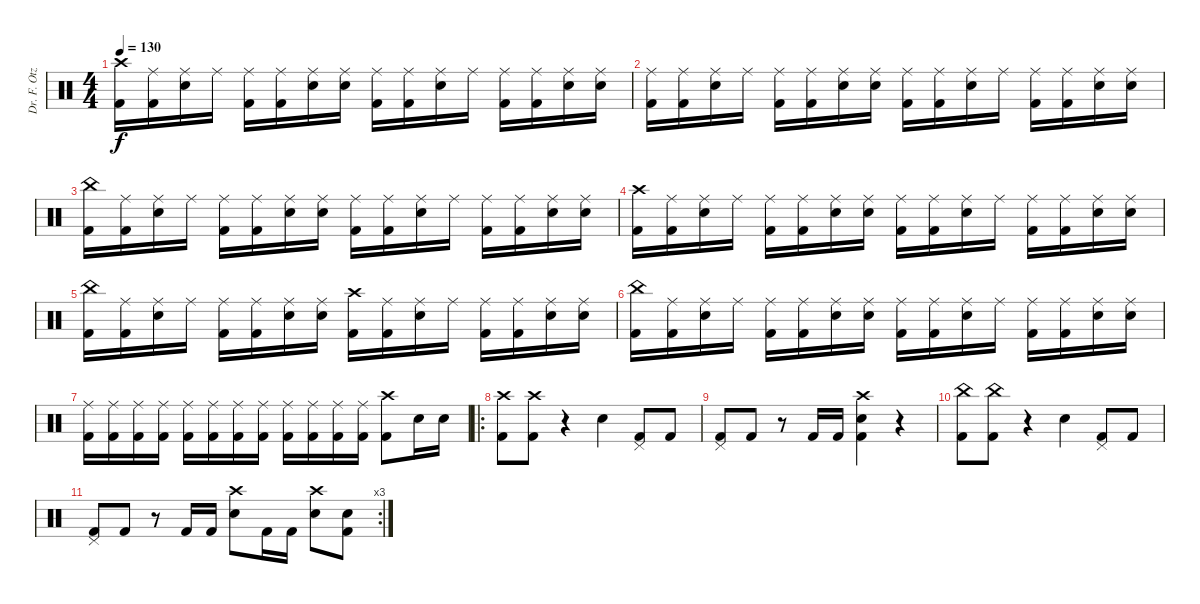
\track ("Dr. F. Otze" "Dr. F. Otz") {instrument percussion}
\staff {score}
\articulation defaults
\ts (4 4)
\tempo 130
\clef neutral
\ks c
("Crash high (hit)" "Kick (hit) 2").16{dy f} ("Ride (middle)" "Kick (hit) 2").16 ("Ride (middle)" "Electric Snare (hit)").16 "Ride (middle)".16 ("Ride (middle)" "Kick (hit) 2").16 ("Ride (middle)" "Kick (hit) 2").16 ("Ride (middle)" "Electric Snare (hit)").16 ("Ride (middle)" "Electric Snare (hit)").16 ("Ride (middle)" "Kick (hit) 2").16 ("Ride (middle)" "Kick (hit) 2").16 ("Ride (middle)" "Electric Snare (hit)").16 "Ride (middle)".16 ("Ride (middle)" "Kick (hit) 2").16 ("Ride (middle)" "Kick (hit) 2").16 ("Ride (middle)" "Electric Snare (hit)").16 ("Ride (middle)" "Electric Snare (hit)").16 |
("Ride (middle)" "Kick (hit) 2").16 ("Ride (middle)" "Kick (hit) 2").16 ("Ride (middle)" "Electric Snare (hit)").16 "Ride (middle)".16 ("Ride (middle)" "Kick (hit) 2").16 ("Ride (middle)" "Kick (hit) 2").16 ("Ride (middle)" "Electric Snare (hit)").16 ("Ride (middle)" "Electric Snare (hit)").16 ("Ride (middle)" "Kick (hit) 2").16 ("Ride (middle)" "Kick (hit) 2").16 ("Ride (middle)" "Electric Snare (hit)").16 "Ride (middle)".16 ("Ride (middle)" "Kick (hit) 2").16 ("Ride (middle)" "Kick (hit) 2").16 ("Ride (middle)" "Electric Snare (hit)").16 ("Ride (middle)" "Electric Snare (hit)").16 |
("China (hit)" "Kick (hit) 2").16 ("Ride (middle)" "Kick (hit) 2").16 ("Ride (middle)" "Electric Snare (hit)").16 "Ride (middle)".16 ("Ride (middle)" "Kick (hit) 2").16 ("Ride (middle)" "Kick (hit) 2").16 ("Ride (middle)" "Electric Snare (hit)").16 ("Ride (middle)" "Electric Snare (hit)").16 ("Ride (middle)" "Kick (hit) 2").16 ("Ride (middle)" "Kick (hit) 2").16 ("Ride (middle)" "Electric Snare (hit)").16 "Ride (middle)".16 ("Ride (middle)" "Kick (hit) 2").16 ("Ride (middle)" "Kick (hit) 2").16 ("Ride (middle)" "Electric Snare (hit)").16 ("Ride (middle)" "Electric Snare (hit)").16 |
("Crash high (hit)" "Kick (hit) 2").16 ("Ride (middle)" "Kick (hit) 2").16 ("Ride (middle)" "Electric Snare (hit)").16 "Ride (middle)".16 ("Ride (middle)" "Kick (hit) 2").16 ("Ride (middle)" "Kick (hit) 2").16 ("Ride (middle)" "Electric Snare (hit)").16 ("Ride (middle)" "Electric Snare (hit)").16 ("Ride (middle)" "Kick (hit) 2").16 ("Ride (middle)" "Kick (hit) 2").16 ("Ride (middle)" "Electric Snare (hit)").16 "Ride (middle)".16 ("Ride (middle)" "Kick (hit) 2").16 ("Ride (middle)" "Kick (hit) 2").16 ("Ride (middle)" "Electric Snare (hit)").16 ("Ride (middle)" "Electric Snare (hit)").16 |
("China (hit)" "Kick (hit) 2").16 ("Ride (middle)" "Kick (hit) 2").16 ("Ride (middle)" "Electric Snare (hit)").16 "Ride (middle)".16 ("Ride (middle)" "Kick (hit) 2").16 ("Ride (middle)" "Kick (hit) 2").16 ("Ride (middle)" "Electric Snare (hit)").16 ("Ride (middle)" "Electric Snare (hit)").16 ("Crash high (hit)" "Kick (hit) 2").16 ("Ride (middle)" "Kick (hit) 2").16 ("Ride (middle)" "Electric Snare (hit)").16 "Ride (middle)".16 ("Ride (middle)" "Kick (hit) 2").16 ("Ride (middle)" "Kick (hit) 2").16 ("Ride (middle)" "Electric Snare (hit)").16 ("Ride (middle)" "Electric Snare (hit)").16 |
("China (hit)" "Kick (hit) 2").16 ("Ride (middle)" "Kick (hit) 2").16 ("Ride (middle)" "Electric Snare (hit)").16 "Ride (middle)".16 ("Ride (middle)" "Kick (hit) 2").16 ("Ride (middle)" "Kick (hit) 2").16 ("Ride (middle)" "Electric Snare (hit)").16 ("Ride (middle)" "Electric Snare (hit)").16 ("Ride (middle)" "Kick (hit) 2").16 ("Ride (middle)" "Kick (hit) 2").16 ("Ride (middle)" "Electric Snare (hit)").16 "Ride (middle)".16 ("Ride (middle)" "Kick (hit) 2").16 ("Ride (middle)" "Kick (hit) 2").16 ("Ride (middle)" "Electric Snare (hit)").16 ("Ride (middle)" "Electric Snare (hit)").16 |
("Ride (middle)" "Kick (hit) 2").16 ("Ride (middle)" "Kick (hit) 2").16 ("Ride (middle)" "Kick (hit) 2").16 ("Ride (middle)" "Kick (hit) 2").16 ("Ride (middle)" "Kick (hit) 2").16 ("Ride (middle)" "Kick (hit) 2").16 ("Ride (middle)" "Kick (hit) 2").16 ("Ride (middle)" "Kick (hit) 2").16 ("Ride (middle)" "Kick (hit) 2").16 ("Ride (middle)" "Kick (hit) 2").16 ("Ride (middle)" "Kick (hit) 2").16 ("Ride (middle)" "Kick (hit) 2").16 ("Crash high (hit)" "Kick (hit) 2").8 "Electric Snare (hit)".16 "Electric Snare (hit)".16 |
\ro
("Crash high (hit)" "Kick (hit) 2").8 ("Crash high (hit)" "Kick (hit) 2").8 r.4 "Electric Snare (hit)".4 ("Pedal Hi-Hat (hit)" "Kick (hit) 2").8 "Kick (hit) 2".8 |
("Pedal Hi-Hat (hit)" "Kick (hit) 2").8 "Kick (hit) 2".8 r.8 "Kick (hit) 2".16 "Kick (hit) 2".16 ("Crash high (hit)" "Electric Snare (hit)" "Kick (hit) 2").4 r.4 |
("China (hit)" "Kick (hit) 2").8 ("China (hit)" "Kick (hit) 2").8 r.4 "Electric Snare (hit)".4 ("Pedal Hi-Hat (hit)" "Kick (hit) 2").8 "Kick (hit) 2".8 |
\rc 3
("Pedal Hi-Hat (hit)" "Kick (hit) 2").8 "Kick (hit) 2".8 r.8 "Kick (hit) 2".16 "Kick (hit) 2".16 ("Crash high (hit)" "Electric Snare (hit)").8 "Kick (hit) 2".16 "Kick (hit) 2".16 ("Crash high (hit)" "Electric Snare (hit)").8 ("Electric Snare (hit)" "Kick (hit) 2").8
